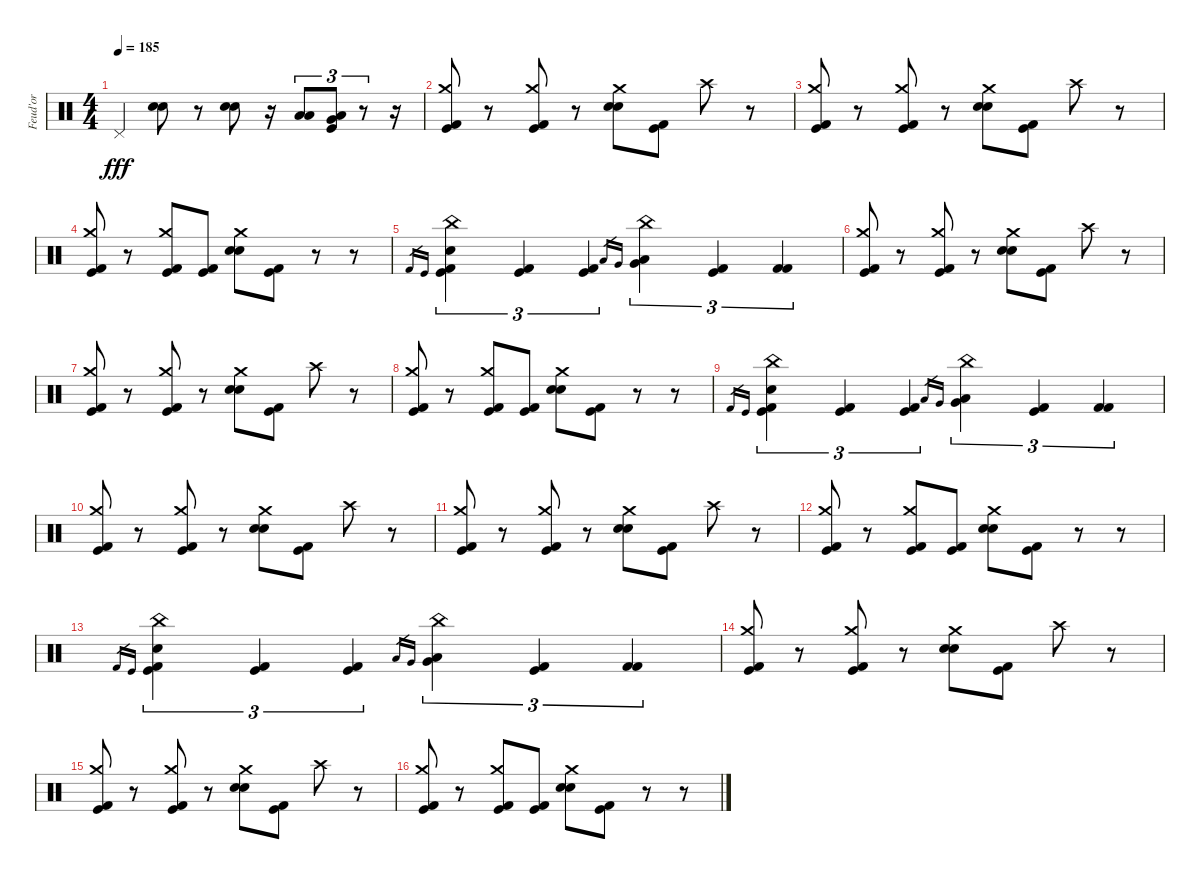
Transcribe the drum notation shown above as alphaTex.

\track ("Feud'or" "Feud'or") {instrument percussion}
\staff {score}
\articulation defaults
\ts (4 4)
\tempo 185
\clef neutral
\ks c "Pedal Hi-Hat (hit)".4{dy fff}
("Snare (hit) 2" "Electric Snare (hit)").8 r.8 ("Snare (hit) 2" "Electric Snare (hit)").8 r.16 ("Low Tom (hit)" "Low Tom (hit)").8{tu (3 2)} ("Low Floor Tom (hit)" "Very Low Tom (hit)" "Kick (hit)").8{tu (3 2)} r.8{tu (3 2)} r.16 |
("Crash medium (hit)" "Kick (hit) 2" "Kick (hit)").8 r.8 ("Crash medium (hit)" "Kick (hit) 2" "Kick (hit)").8 r.8 ("Crash medium (hit)" "Electric Snare (hit)" "Snare (hit) 2").8 ("Kick (hit) 2" "Kick (hit)").8 "Crash high (hit)".8 r.8 |
("Crash medium (hit)" "Kick (hit) 2" "Kick (hit)").8 r.8 ("Crash medium (hit)" "Kick (hit) 2" "Kick (hit)").8 r.8 ("Crash medium (hit)" "Electric Snare (hit)" "Snare (hit) 2").8 ("Kick (hit) 2" "Kick (hit)").8 "Crash high (hit)".8 r.8 |
("Crash medium (hit)" "Kick (hit) 2" "Kick (hit)").8 r.8 ("Crash medium (hit)" "Kick (hit) 2" "Kick (hit)").8 ("Kick (hit) 2" "Kick (hit)").8 ("Crash medium (hit)" "Electric Snare (hit)" "Snare (hit) 2").8 ("Kick (hit) 2" "Kick (hit)").8 r.8 r.8 |
"Kick (hit) 2".16{gr} "Kick (hit)".16{gr} ("China (hit)" "Snare (hit) 2" "Kick (hit) 2" "Kick (hit)").4{tu (3 2)} ("Kick (hit) 2" "Kick (hit)").4{tu (3 2)} ("Kick (hit) 2" "Kick (hit)").4{tu (3 2)} "Low Tom (hit)".16{gr} "Very Low Tom (hit)".16{gr} ("China (hit)" "Low Tom (hit)" "Very Low Tom (hit)").4{tu (3 2)} ("Kick (hit) 2" "Kick (hit)").4{tu (3 2)} ("Kick (hit) 2" "Kick (hit) 2").4{tu (3 2)} |
("Crash medium (hit)" "Kick (hit) 2" "Kick (hit)").8 r.8 ("Crash medium (hit)" "Kick (hit) 2" "Kick (hit)").8 r.8 ("Crash medium (hit)" "Electric Snare (hit)" "Snare (hit) 2").8 ("Kick (hit) 2" "Kick (hit)").8 "Crash high (hit)".8 r.8 |
("Crash medium (hit)" "Kick (hit) 2" "Kick (hit)").8 r.8 ("Crash medium (hit)" "Kick (hit) 2" "Kick (hit)").8 r.8 ("Crash medium (hit)" "Electric Snare (hit)" "Snare (hit) 2").8 ("Kick (hit) 2" "Kick (hit)").8 "Crash high (hit)".8 r.8 |
("Crash medium (hit)" "Kick (hit) 2" "Kick (hit)").8 r.8 ("Crash medium (hit)" "Kick (hit) 2" "Kick (hit)").8 ("Kick (hit) 2" "Kick (hit)").8 ("Crash medium (hit)" "Electric Snare (hit)" "Snare (hit) 2").8 ("Kick (hit) 2" "Kick (hit)").8 r.8 r.8 |
"Kick (hit) 2".16{gr} "Kick (hit)".16{gr} ("China (hit)" "Snare (hit) 2" "Kick (hit) 2" "Kick (hit)").4{tu (3 2)} ("Kick (hit) 2" "Kick (hit)").4{tu (3 2)} ("Kick (hit) 2" "Kick (hit)").4{tu (3 2)} "Low Tom (hit)".16{gr} "Very Low Tom (hit)".16{gr} ("China (hit)" "Low Tom (hit)" "Very Low Tom (hit)").4{tu (3 2)} ("Kick (hit) 2" "Kick (hit)").4{tu (3 2)} ("Kick (hit) 2" "Kick (hit) 2").4{tu (3 2)} |
("Crash medium (hit)" "Kick (hit) 2" "Kick (hit)").8 r.8 ("Crash medium (hit)" "Kick (hit) 2" "Kick (hit)").8 r.8 ("Crash medium (hit)" "Electric Snare (hit)" "Snare (hit) 2").8 ("Kick (hit) 2" "Kick (hit)").8 "Crash high (hit)".8 r.8 |
("Crash medium (hit)" "Kick (hit) 2" "Kick (hit)").8 r.8 ("Crash medium (hit)" "Kick (hit) 2" "Kick (hit)").8 r.8 ("Crash medium (hit)" "Electric Snare (hit)" "Snare (hit) 2").8 ("Kick (hit) 2" "Kick (hit)").8 "Crash high (hit)".8 r.8 |
("Crash medium (hit)" "Kick (hit) 2" "Kick (hit)").8 r.8 ("Crash medium (hit)" "Kick (hit) 2" "Kick (hit)").8 ("Kick (hit) 2" "Kick (hit)").8 ("Crash medium (hit)" "Electric Snare (hit)" "Snare (hit) 2").8 ("Kick (hit) 2" "Kick (hit)").8 r.8 r.8 |
"Kick (hit) 2".16{gr} "Kick (hit)".16{gr} ("China (hit)" "Snare (hit) 2" "Kick (hit) 2" "Kick (hit)").4{tu (3 2)} ("Kick (hit) 2" "Kick (hit)").4{tu (3 2)} ("Kick (hit) 2" "Kick (hit)").4{tu (3 2)} "Low Tom (hit)".16{gr} "Very Low Tom (hit)".16{gr} ("China (hit)" "Low Tom (hit)" "Very Low Tom (hit)").4{tu (3 2)} ("Kick (hit) 2" "Kick (hit)").4{tu (3 2)} ("Kick (hit) 2" "Kick (hit) 2").4{tu (3 2)} |
("Crash medium (hit)" "Kick (hit) 2" "Kick (hit)").8 r.8 ("Crash medium (hit)" "Kick (hit) 2" "Kick (hit)").8 r.8 ("Crash medium (hit)" "Electric Snare (hit)" "Snare (hit) 2").8 ("Kick (hit) 2" "Kick (hit)").8 "Crash high (hit)".8 r.8 |
("Crash medium (hit)" "Kick (hit) 2" "Kick (hit)").8 r.8 ("Crash medium (hit)" "Kick (hit) 2" "Kick (hit)").8 r.8 ("Crash medium (hit)" "Electric Snare (hit)" "Snare (hit) 2").8 ("Kick (hit) 2" "Kick (hit)").8 "Crash high (hit)".8 r.8 |
("Crash medium (hit)" "Kick (hit) 2" "Kick (hit)").8 r.8 ("Crash medium (hit)" "Kick (hit) 2" "Kick (hit)").8 ("Kick (hit) 2" "Kick (hit)").8 ("Crash medium (hit)" "Electric Snare (hit)" "Snare (hit) 2").8 ("Kick (hit) 2" "Kick (hit)").8 r.8 r.8
